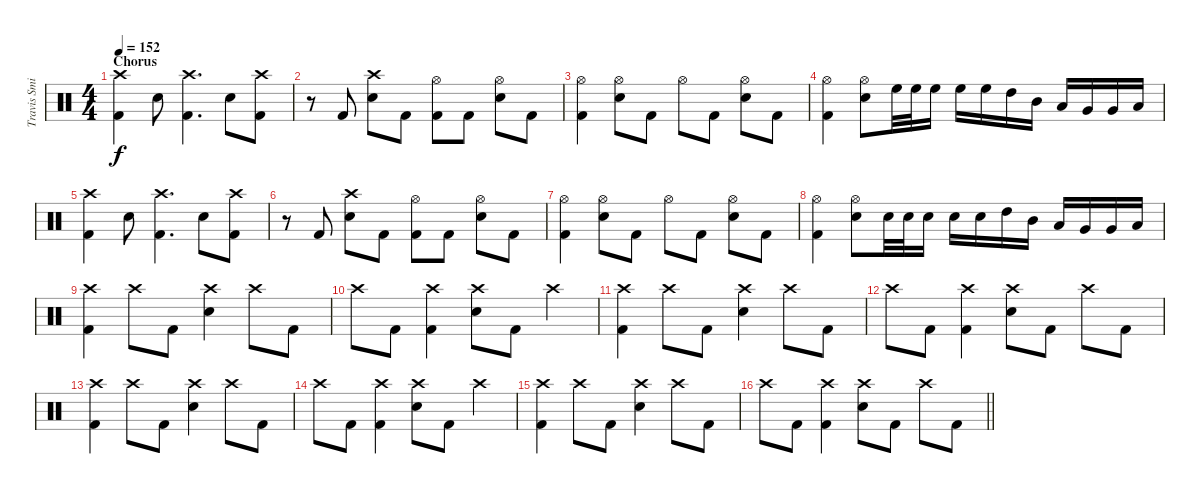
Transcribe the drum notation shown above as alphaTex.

\track ("Travis Smith" "Travis Smi") {instrument percussion}
\staff {score}
\articulation defaults
\ts (4 4)
\section ("" "Chorus")
\tempo 152
\clef neutral
\ks c
("Kick (hit) 2" "Crash high (hit)").4{dy f} "Snare (hit) 2".8 ("Kick (hit) 2" "Crash high (hit)").4{d} "Snare (hit) 2".8 ("Kick (hit) 2" "Crash high (hit)").8 |
r.8 "Kick (hit) 2".8 ("Snare (hit) 2" "Crash high (hit)").8 "Kick (hit) 2".8 ("Kick (hit) 2" "Hi-Hat (open)").8 "Kick (hit) 2".8 ("Snare (hit) 2" "Hi-Hat (open)").8 "Kick (hit) 2".8 |
("Kick (hit) 2" "Hi-Hat (open)").4 ("Snare (hit) 2" "Hi-Hat (open)").8 "Kick (hit) 2".8 "Hi-Hat (open)".8 "Kick (hit) 2".8 ("Snare (hit) 2" "Hi-Hat (open)").8 "Kick (hit) 2".8 |
("Kick (hit) 2" "Hi-Hat (open)").4 ("Snare (hit) 2" "Hi-Hat (open)").8 "High Floor Tom (hit)".32 "High Floor Tom (hit)".32 "High Floor Tom (hit)".16 "High Floor Tom (hit)".16 "High Floor Tom (hit)".16 "High Tom (hit)".16 "Mid Tom (hit)".16 "Low Tom (hit)".16 "Very Low Tom (hit)".16 "Very Low Tom (hit)".16 "Low Floor Tom (hit)".16 |
("Kick (hit) 2" "Crash high (hit)").4 "Snare (hit) 2".8 ("Kick (hit) 2" "Crash high (hit)").4{d} "Snare (hit) 2".8 ("Kick (hit) 2" "Crash high (hit)").8 |
r.8 "Kick (hit) 2".8 ("Snare (hit) 2" "Crash high (hit)").8 "Kick (hit) 2".8 ("Kick (hit) 2" "Hi-Hat (open)").8 "Kick (hit) 2".8 ("Snare (hit) 2" "Hi-Hat (open)").8 "Kick (hit) 2".8 |
("Kick (hit) 2" "Hi-Hat (open)").4 ("Snare (hit) 2" "Hi-Hat (open)").8 "Kick (hit) 2".8 "Hi-Hat (open)".8 "Kick (hit) 2".8 ("Snare (hit) 2" "Hi-Hat (open)").8 "Kick (hit) 2".8 |
("Kick (hit) 2" "Hi-Hat (open)").4 ("Snare (hit) 2" "Hi-Hat (open)").8 "Snare (hit) 2".32 "Snare (hit) 2".32 "Snare (hit) 2".16 "Snare (hit) 2".16 "Snare (hit) 2".16 "High Tom (hit)".16 "Mid Tom (hit)".16 "Low Tom (hit)".16 "Very Low Tom (hit)".16 "Very Low Tom (hit)".16 "Low Floor Tom (hit)".16 |
("Kick (hit) 2" "Crash high (hit)").4 "Crash high (hit)".8 "Kick (hit) 2".8 ("Snare (hit) 2" "Crash high (hit)").4 "Crash high (hit)".8 "Kick (hit) 2".8 |
"Crash high (hit)".8 "Kick (hit) 2".8 ("Kick (hit) 2" "Crash high (hit)").4 ("Snare (hit) 2" "Crash high (hit)").8 "Kick (hit) 2".8 "Crash high (hit)".4 |
("Kick (hit) 2" "Crash high (hit)").4 "Crash high (hit)".8 "Kick (hit) 2".8 ("Snare (hit) 2" "Crash high (hit)").4 "Crash high (hit)".8 "Kick (hit) 2".8 |
"Crash high (hit)".8 "Kick (hit) 2".8 ("Kick (hit) 2" "Crash high (hit)").4 ("Snare (hit) 2" "Crash high (hit)").8 "Kick (hit) 2".8 "Crash high (hit)".8 "Kick (hit) 2".8 |
("Kick (hit) 2" "Crash high (hit)").4 "Crash high (hit)".8 "Kick (hit) 2".8 ("Snare (hit) 2" "Crash high (hit)").4 "Crash high (hit)".8 "Kick (hit) 2".8 |
"Crash high (hit)".8 "Kick (hit) 2".8 ("Kick (hit) 2" "Crash high (hit)").4 ("Snare (hit) 2" "Crash high (hit)").8 "Kick (hit) 2".8 "Crash high (hit)".4 |
("Kick (hit) 2" "Crash high (hit)").4 "Crash high (hit)".8 "Kick (hit) 2".8 ("Snare (hit) 2" "Crash high (hit)").4 "Crash high (hit)".8 "Kick (hit) 2".8 |
\barLineRight lightlight "Crash high (hit)".8 "Kick (hit) 2".8
("Kick (hit) 2" "Crash high (hit)").4 ("Snare (hit) 2" "Crash high (hit)").8 "Kick (hit) 2".8 "Crash high (hit)".8 "Kick (hit) 2".8
